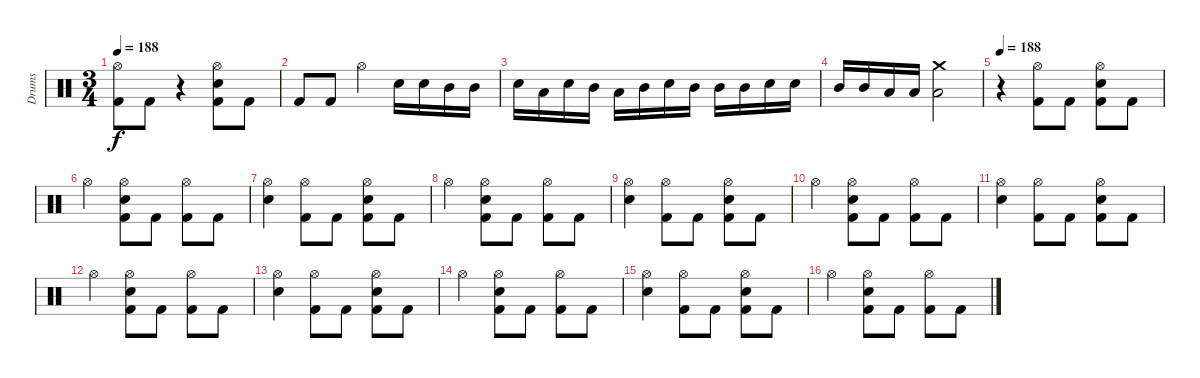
\track ("Drums" "Drums") {instrument percussion}
\staff {score}
\articulation defaults
\ts (3 4)
\tempo 188
\clef neutral
\ks c
("Hi-Hat (open)" "Kick (hit) 2").8{dy f} "Kick (hit) 2".8 r.4 ("Electric Snare (hit)" "Hi-Hat (open)" "Kick (hit) 2").8 "Kick (hit) 2".8 |
"Kick (hit) 2".8 "Kick (hit) 2".8 "Hi-Hat (open)".4 "Electric Snare (hit)".16 "Electric Snare (hit)".16 "Mid Tom (hit)".16 "Mid Tom (hit)".16 |
"Electric Snare (hit)".16 "Low Tom (hit)".16 "Electric Snare (hit)".16 "Mid Tom (hit)".16 "Low Tom (hit)".16 "Mid Tom (hit)".16 "Electric Snare (hit)".16 "Mid Tom (hit)".16 "Mid Tom (hit)".16 "Mid Tom (hit)".16 "Electric Snare (hit)".16 "Electric Snare (hit)".16 |
"Mid Tom (hit)".16 "Mid Tom (hit)".16 "Low Tom (hit)".16 "Low Tom (hit)".16 ("Crash medium (hit)" "Low Floor Tom (hit)").2 |
\tempo 188
r.4 ("Hi-Hat (open)" "Kick (hit) 2").8 "Kick (hit) 2".8 ("Electric Snare (hit)" "Hi-Hat (open)" "Kick (hit) 2").8 "Kick (hit) 2".8 |
"Hi-Hat (open)".4 ("Electric Snare (hit)" "Hi-Hat (open)" "Kick (hit) 2").8 "Kick (hit) 2".8 ("Hi-Hat (open)" "Kick (hit) 2").8 "Kick (hit) 2".8 |
("Electric Snare (hit)" "Hi-Hat (open)").4 ("Hi-Hat (open)" "Kick (hit) 2").8 "Kick (hit) 2".8 ("Electric Snare (hit)" "Hi-Hat (open)" "Kick (hit) 2").8 "Kick (hit) 2".8 |
"Hi-Hat (open)".4 ("Electric Snare (hit)" "Hi-Hat (open)" "Kick (hit) 2").8 "Kick (hit) 2".8 ("Hi-Hat (open)" "Kick (hit) 2").8 "Kick (hit) 2".8 |
("Electric Snare (hit)" "Hi-Hat (open)").4 ("Hi-Hat (open)" "Kick (hit) 2").8 "Kick (hit) 2".8 ("Electric Snare (hit)" "Hi-Hat (open)" "Kick (hit) 2").8 "Kick (hit) 2".8 |
"Hi-Hat (open)".4 ("Electric Snare (hit)" "Hi-Hat (open)" "Kick (hit) 2").8 "Kick (hit) 2".8 ("Hi-Hat (open)" "Kick (hit) 2").8 "Kick (hit) 2".8 |
("Electric Snare (hit)" "Hi-Hat (open)").4 ("Hi-Hat (open)" "Kick (hit) 2").8 "Kick (hit) 2".8 ("Electric Snare (hit)" "Hi-Hat (open)" "Kick (hit) 2").8 "Kick (hit) 2".8 |
"Hi-Hat (open)".4 ("Electric Snare (hit)" "Hi-Hat (open)" "Kick (hit) 2").8 "Kick (hit) 2".8 ("Hi-Hat (open)" "Kick (hit) 2").8 "Kick (hit) 2".8 |
("Electric Snare (hit)" "Hi-Hat (open)").4 ("Hi-Hat (open)" "Kick (hit) 2").8 "Kick (hit) 2".8 ("Electric Snare (hit)" "Hi-Hat (open)" "Kick (hit) 2").8 "Kick (hit) 2".8 |
"Hi-Hat (open)".4 ("Electric Snare (hit)" "Hi-Hat (open)" "Kick (hit) 2").8 "Kick (hit) 2".8 ("Hi-Hat (open)" "Kick (hit) 2").8 "Kick (hit) 2".8 |
("Electric Snare (hit)" "Hi-Hat (open)").4 ("Hi-Hat (open)" "Kick (hit) 2").8 "Kick (hit) 2".8 ("Electric Snare (hit)" "Hi-Hat (open)" "Kick (hit) 2").8 "Kick (hit) 2".8 |
"Hi-Hat (open)".4 ("Electric Snare (hit)" "Hi-Hat (open)" "Kick (hit) 2").8 "Kick (hit) 2".8 ("Hi-Hat (open)" "Kick (hit) 2").8 "Kick (hit) 2".8
